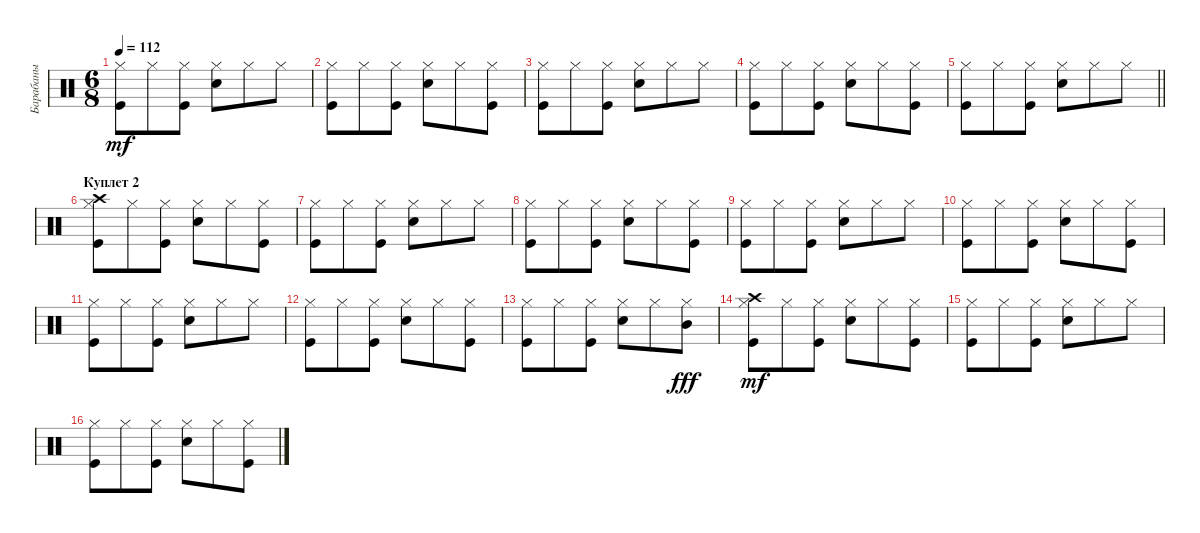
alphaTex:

\track ("Барабаны" "Барабаны") {instrument percussion}
\staff {score}
\articulation defaults
\ts (6 8)
\tempo 112
\clef neutral
\ks c
("Kick (hit)" "Hi-Hat (closed)").8{dy mf} "Hi-Hat (closed)".8 ("Kick (hit)" "Hi-Hat (closed)").8 ("Snare (hit) 2" "Hi-Hat (closed)").8 "Hi-Hat (closed)".8 "Hi-Hat (closed)".8 |
("Kick (hit)" "Hi-Hat (closed)").8 "Hi-Hat (closed)".8 ("Kick (hit)" "Hi-Hat (closed)").8 ("Snare (hit) 2" "Hi-Hat (closed)").8 "Hi-Hat (closed)".8 ("Kick (hit)" "Hi-Hat (closed)").8 |
("Kick (hit)" "Hi-Hat (closed)").8 "Hi-Hat (closed)".8 ("Kick (hit)" "Hi-Hat (closed)").8 ("Snare (hit) 2" "Hi-Hat (closed)").8 "Hi-Hat (closed)".8 "Hi-Hat (closed)".8 |
("Kick (hit)" "Hi-Hat (closed)").8 "Hi-Hat (closed)".8 ("Kick (hit)" "Hi-Hat (closed)").8 ("Snare (hit) 2" "Hi-Hat (closed)").8 "Hi-Hat (closed)".8 ("Kick (hit)" "Hi-Hat (closed)").8 |
\barLineRight lightlight
("Kick (hit)" "Hi-Hat (closed)").8 "Hi-Hat (closed)".8 ("Kick (hit)" "Hi-Hat (closed)").8 ("Snare (hit) 2" "Hi-Hat (closed)").8 "Hi-Hat (closed)".8 "Hi-Hat (closed)".8 |
\section ("" "Куплет 2")
("Kick (hit)" "Hi-Hat (closed)" "Crash high (hit)").8 "Hi-Hat (closed)".8 ("Kick (hit)" "Hi-Hat (closed)").8 ("Snare (hit) 2" "Hi-Hat (closed)").8 "Hi-Hat (closed)".8 ("Kick (hit)" "Hi-Hat (closed)").8 |
("Kick (hit)" "Hi-Hat (closed)").8 "Hi-Hat (closed)".8 ("Kick (hit)" "Hi-Hat (closed)").8 ("Snare (hit) 2" "Hi-Hat (closed)").8 "Hi-Hat (closed)".8 "Hi-Hat (closed)".8 |
("Kick (hit)" "Hi-Hat (closed)").8 "Hi-Hat (closed)".8 ("Kick (hit)" "Hi-Hat (closed)").8 ("Snare (hit) 2" "Hi-Hat (closed)").8 "Hi-Hat (closed)".8 ("Kick (hit)" "Hi-Hat (closed)").8 |
("Kick (hit)" "Hi-Hat (closed)").8 "Hi-Hat (closed)".8 ("Kick (hit)" "Hi-Hat (closed)").8 ("Snare (hit) 2" "Hi-Hat (closed)").8 "Hi-Hat (closed)".8 "Hi-Hat (closed)".8 |
("Kick (hit)" "Hi-Hat (closed)").8 "Hi-Hat (closed)".8 ("Kick (hit)" "Hi-Hat (closed)").8 ("Snare (hit) 2" "Hi-Hat (closed)").8 "Hi-Hat (closed)".8 ("Kick (hit)" "Hi-Hat (closed)").8 |
("Kick (hit)" "Hi-Hat (closed)").8 "Hi-Hat (closed)".8 ("Kick (hit)" "Hi-Hat (closed)").8 ("Snare (hit) 2" "Hi-Hat (closed)").8 "Hi-Hat (closed)".8 "Hi-Hat (closed)".8 |
("Kick (hit)" "Hi-Hat (closed)").8 "Hi-Hat (closed)".8 ("Kick (hit)" "Hi-Hat (closed)").8 ("Snare (hit) 2" "Hi-Hat (closed)").8 "Hi-Hat (closed)".8 ("Kick (hit)" "Hi-Hat (closed)").8 |
("Kick (hit)" "Hi-Hat (closed)").8 "Hi-Hat (closed)".8 ("Kick (hit)" "Hi-Hat (closed)").8 ("Snare (hit) 2" "Hi-Hat (closed)").8 "Hi-Hat (closed)".8 ("Hi-Hat (closed)" "Mid Tom (hit)").8{dy fff} |
("Kick (hit)" "Hi-Hat (closed)" "Crash high (hit)").8{dy mf} "Hi-Hat (closed)".8 ("Kick (hit)" "Hi-Hat (closed)").8 ("Snare (hit) 2" "Hi-Hat (closed)").8 "Hi-Hat (closed)".8 ("Kick (hit)" "Hi-Hat (closed)").8 |
("Kick (hit)" "Hi-Hat (closed)").8 "Hi-Hat (closed)".8 ("Kick (hit)" "Hi-Hat (closed)").8 ("Snare (hit) 2" "Hi-Hat (closed)").8 "Hi-Hat (closed)".8 "Hi-Hat (closed)".8 |
("Kick (hit)" "Hi-Hat (closed)").8 "Hi-Hat (closed)".8 ("Kick (hit)" "Hi-Hat (closed)").8 ("Snare (hit) 2" "Hi-Hat (closed)").8 "Hi-Hat (closed)".8 ("Kick (hit)" "Hi-Hat (closed)").8
